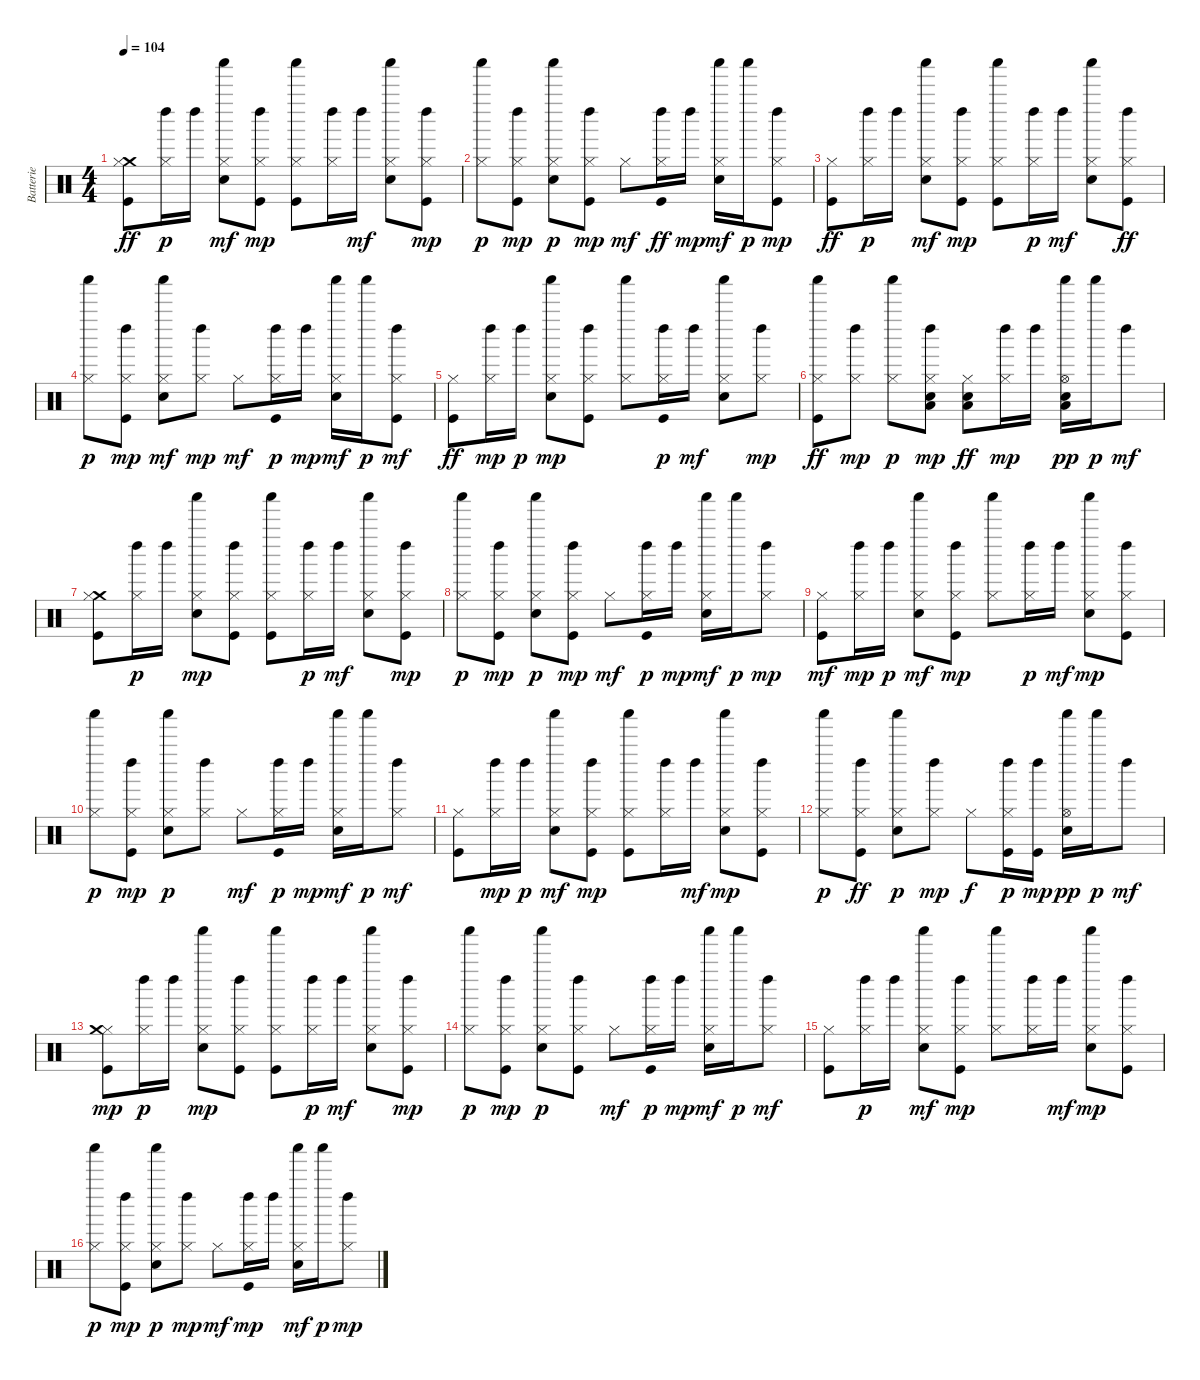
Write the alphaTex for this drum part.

\track ("Batterie" "Batterie") {instrument percussion}
\staff {score}
\articulation defaults
\ts (4 4)
\tempo 104
\clef neutral
\ks c
("Crash medium (hit)" "Hi-Hat (closed)" "Kick (hit)").8{dy ff} ("Left Maraca (hit)" "Hi-Hat (closed)").16{dy p} "Left Maraca (hit)".16 ("Shaker (hit)" "Hi-Hat (closed)" "Electric Snare (hit)").8{dy mf} ("Left Maraca (hit)" "Kick (hit)" "Hi-Hat (closed)").8{dy mp} ("Kick (hit)" "Shaker (hit)" "Hi-Hat (closed)").8 ("Hi-Hat (closed)" "Left Maraca (hit)").16 "Left Maraca (hit)".16{dy mf} ("Electric Snare (hit)" "Shaker (hit)" "Hi-Hat (closed)").8 ("Left Maraca (hit)" "Hi-Hat (closed)" "Kick (hit)").8{dy mp} |
("Hi-Hat (closed)" "Shaker (hit)").8{dy p} ("Left Maraca (hit)" "Kick (hit)" "Hi-Hat (closed)").8{dy mp} ("Hi-Hat (closed)" "Electric Snare (hit)" "Shaker (hit)").8{dy p} ("Hi-Hat (closed)" "Kick (hit)" "Left Maraca (hit)").8{dy mp} "Hi-Hat (closed)".8{dy mf} ("Left Maraca (hit)" "Hi-Hat (closed)" "Kick (hit)").16{dy ff} "Left Maraca (hit)".16{dy mp} ("Shaker (hit)" "Hi-Hat (closed)" "Electric Snare (hit)").16{dy mf} "Shaker (hit)".16{dy p} ("Kick (hit)" "Left Maraca (hit)" "Hi-Hat (closed)").8{dy mp} |
("Hi-Hat (closed)" "Kick (hit)").8{dy ff} ("Left Maraca (hit)" "Hi-Hat (closed)").16{dy p} "Left Maraca (hit)".16 ("Shaker (hit)" "Hi-Hat (closed)" "Electric Snare (hit)").8{dy mf} ("Kick (hit)" "Hi-Hat (closed)" "Left Maraca (hit)").8{dy mp} ("Hi-Hat (closed)" "Kick (hit)" "Shaker (hit)").8 ("Left Maraca (hit)" "Hi-Hat (closed)").16{dy p} "Left Maraca (hit)".16{dy mf} ("Shaker (hit)" "Hi-Hat (closed)" "Electric Snare (hit)").8 ("Left Maraca (hit)" "Hi-Hat (closed)" "Kick (hit)").8{dy ff} |
("Shaker (hit)" "Hi-Hat (closed)").8{dy p} ("Hi-Hat (closed)" "Left Maraca (hit)" "Kick (hit)").8{dy mp} ("Electric Snare (hit)" "Shaker (hit)" "Hi-Hat (closed)").8{dy mf} ("Hi-Hat (closed)" "Left Maraca (hit)").8{dy mp} "Hi-Hat (closed)".8{dy mf} ("Left Maraca (hit)" "Hi-Hat (closed)" "Kick (hit)").16{dy p} "Left Maraca (hit)".16{dy mp} ("Shaker (hit)" "Electric Snare (hit)" "Hi-Hat (closed)").16{dy mf} "Shaker (hit)".16{dy p} ("Hi-Hat (closed)" "Kick (hit)" "Left Maraca (hit)").8{dy mf} |
("Hi-Hat (closed)" "Kick (hit)").8{dy ff} ("Hi-Hat (closed)" "Left Maraca (hit)").16{dy mp} "Left Maraca (hit)".16{dy p} ("Electric Snare (hit)" "Hi-Hat (closed)" "Shaker (hit)").8{dy mp} ("Kick (hit)" "Hi-Hat (closed)" "Left Maraca (hit)").8 ("Shaker (hit)" "Hi-Hat (closed)").8 ("Kick (hit)" "Left Maraca (hit)" "Hi-Hat (closed)").16{dy p} "Left Maraca (hit)".16{dy mf} ("Shaker (hit)" "Hi-Hat (closed)" "Electric Snare (hit)").8 ("Left Maraca (hit)" "Hi-Hat (closed)").8{dy mp} |
("Hi-Hat (closed)" "Shaker (hit)" "Kick (hit)").8{dy ff} ("Hi-Hat (closed)" "Left Maraca (hit)").8{dy mp} ("Hi-Hat (closed)" "Shaker (hit)").8{dy p} ("Low Tom (hit)" "Electric Snare (hit)" "Left Maraca (hit)" "Hi-Hat (closed)").8{dy mp} ("Low Tom (hit)" "Electric Snare (hit)" "Hi-Hat (closed)").8{dy ff} ("Hi-Hat (closed)" "Left Maraca (hit)").16{dy mp} "Left Maraca (hit)".16 ("Hi-Hat (open)" "Electric Snare (hit)" "Shaker (hit)" "Low Tom (hit)").16{dy pp} "Shaker (hit)".16{dy p} "Left Maraca (hit)".8{dy mf} |
("Crash medium (hit)" "Kick (hit)" "Hi-Hat (closed)").8 ("Left Maraca (hit)" "Hi-Hat (closed)").16{dy p} "Left Maraca (hit)".16 ("Hi-Hat (closed)" "Electric Snare (hit)" "Shaker (hit)").8{dy mp} ("Left Maraca (hit)" "Hi-Hat (closed)" "Kick (hit)").8 ("Shaker (hit)" "Kick (hit)" "Hi-Hat (closed)").8 ("Left Maraca (hit)" "Hi-Hat (closed)").16{dy p} "Left Maraca (hit)".16{dy mf} ("Shaker (hit)" "Hi-Hat (closed)" "Electric Snare (hit)").8 ("Hi-Hat (closed)" "Left Maraca (hit)" "Kick (hit)").8{dy mp} |
("Shaker (hit)" "Hi-Hat (closed)").8{dy p} ("Left Maraca (hit)" "Kick (hit)" "Hi-Hat (closed)").8{dy mp} ("Hi-Hat (closed)" "Shaker (hit)" "Electric Snare (hit)").8{dy p} ("Hi-Hat (closed)" "Kick (hit)" "Left Maraca (hit)").8{dy mp} "Hi-Hat (closed)".8{dy mf} ("Left Maraca (hit)" "Kick (hit)" "Hi-Hat (closed)").16{dy p} "Left Maraca (hit)".16{dy mp} ("Shaker (hit)" "Hi-Hat (closed)" "Electric Snare (hit)").16{dy mf} "Shaker (hit)".16{dy p} ("Left Maraca (hit)" "Hi-Hat (closed)").8{dy mp} |
("Kick (hit)" "Hi-Hat (closed)").8{dy mf} ("Hi-Hat (closed)" "Left Maraca (hit)").16{dy mp} "Left Maraca (hit)".16{dy p} ("Shaker (hit)" "Hi-Hat (closed)" "Electric Snare (hit)").8{dy mf} ("Hi-Hat (closed)" "Kick (hit)" "Left Maraca (hit)").8{dy mp} ("Shaker (hit)" "Hi-Hat (closed)").8 ("Left Maraca (hit)" "Hi-Hat (closed)").16{dy p} "Left Maraca (hit)".16{dy mf} ("Electric Snare (hit)" "Hi-Hat (closed)" "Shaker (hit)").8{dy mp} ("Kick (hit)" "Hi-Hat (closed)" "Left Maraca (hit)").8 |
("Shaker (hit)" "Hi-Hat (closed)").8{dy p} ("Kick (hit)" "Hi-Hat (closed)" "Left Maraca (hit)").8{dy mp} ("Hi-Hat (closed)" "Shaker (hit)" "Electric Snare (hit)").8{dy p} ("Left Maraca (hit)" "Hi-Hat (closed)").8 "Hi-Hat (closed)".8{dy mf} ("Left Maraca (hit)" "Hi-Hat (closed)" "Kick (hit)").16{dy p} "Left Maraca (hit)".16{dy mp} ("Electric Snare (hit)" "Shaker (hit)" "Hi-Hat (closed)").16{dy mf} "Shaker (hit)".16{dy p} ("Hi-Hat (closed)" "Left Maraca (hit)").8{dy mf} |
("Kick (hit)" "Hi-Hat (closed)").8 ("Hi-Hat (closed)" "Left Maraca (hit)").16{dy mp} "Left Maraca (hit)".16{dy p} ("Electric Snare (hit)" "Shaker (hit)" "Hi-Hat (closed)").8{dy mf} ("Kick (hit)" "Hi-Hat (closed)" "Left Maraca (hit)").8{dy mp} ("Shaker (hit)" "Hi-Hat (closed)" "Kick (hit)").8 ("Hi-Hat (closed)" "Left Maraca (hit)").16 "Left Maraca (hit)".16{dy mf} ("Hi-Hat (closed)" "Electric Snare (hit)" "Shaker (hit)").8{dy mp} ("Kick (hit)" "Hi-Hat (closed)" "Left Maraca (hit)").8 |
("Hi-Hat (closed)" "Shaker (hit)").8{dy p} ("Hi-Hat (closed)" "Left Maraca (hit)" "Kick (hit)").8{dy ff} ("Hi-Hat (closed)" "Shaker (hit)" "Electric Snare (hit)").8{dy p} ("Hi-Hat (closed)" "Left Maraca (hit)").8{dy mp} "Hi-Hat (closed)".8{dy f} ("Kick (hit)" "Left Maraca (hit)" "Hi-Hat (closed)").16{dy p} ("Kick (hit)" "Left Maraca (hit)").16{dy mp} ("Hi-Hat (open)" "Shaker (hit)" "Electric Snare (hit)").16{dy pp} "Shaker (hit)".16{dy p} "Left Maraca (hit)".8{dy mf} |
("Hi-Hat (closed)" "Kick (hit)" "Crash medium (hit)").8{dy mp} ("Left Maraca (hit)" "Hi-Hat (closed)").16{dy p} "Left Maraca (hit)".16 ("Hi-Hat (closed)" "Electric Snare (hit)" "Shaker (hit)").8{dy mp} ("Hi-Hat (closed)" "Left Maraca (hit)" "Kick (hit)").8 ("Shaker (hit)" "Hi-Hat (closed)" "Kick (hit)").8 ("Left Maraca (hit)" "Hi-Hat (closed)").16{dy p} "Left Maraca (hit)".16{dy mf} ("Shaker (hit)" "Electric Snare (hit)" "Hi-Hat (closed)").8 ("Hi-Hat (closed)" "Left Maraca (hit)" "Kick (hit)").8{dy mp} |
("Shaker (hit)" "Hi-Hat (closed)").8{dy p} ("Left Maraca (hit)" "Kick (hit)" "Hi-Hat (closed)").8{dy mp} ("Hi-Hat (closed)" "Electric Snare (hit)" "Shaker (hit)").8{dy p} ("Kick (hit)" "Left Maraca (hit)" "Hi-Hat (closed)").8 "Hi-Hat (closed)".8{dy mf} ("Kick (hit)" "Left Maraca (hit)" "Hi-Hat (closed)").16{dy p} "Left Maraca (hit)".16{dy mp} ("Shaker (hit)" "Hi-Hat (closed)" "Electric Snare (hit)").16{dy mf} "Shaker (hit)".16{dy p} ("Hi-Hat (closed)" "Left Maraca (hit)").8{dy mf} |
("Kick (hit)" "Hi-Hat (closed)").8 ("Left Maraca (hit)" "Hi-Hat (closed)").16{dy p} "Left Maraca (hit)".16 ("Electric Snare (hit)" "Shaker (hit)" "Hi-Hat (closed)").8{dy mf} ("Hi-Hat (closed)" "Kick (hit)" "Left Maraca (hit)").8{dy mp} ("Shaker (hit)" "Hi-Hat (closed)").8 ("Hi-Hat (closed)" "Left Maraca (hit)").16 "Left Maraca (hit)".16{dy mf} ("Hi-Hat (closed)" "Electric Snare (hit)" "Shaker (hit)").8{dy mp} ("Hi-Hat (closed)" "Kick (hit)" "Left Maraca (hit)").8 |
("Hi-Hat (closed)" "Shaker (hit)").8{dy p} ("Hi-Hat (closed)" "Left Maraca (hit)" "Kick (hit)").8{dy mp} ("Electric Snare (hit)" "Hi-Hat (closed)" "Shaker (hit)").8{dy p} ("Hi-Hat (closed)" "Left Maraca (hit)").8{dy mp} "Hi-Hat (closed)".8{dy mf} ("Kick (hit)" "Hi-Hat (closed)" "Left Maraca (hit)").16{dy mp} "Left Maraca (hit)".16 ("Shaker (hit)" "Hi-Hat (closed)" "Electric Snare (hit)").16{dy mf} "Shaker (hit)".16{dy p} ("Left Maraca (hit)" "Hi-Hat (closed)").8{dy mp}
